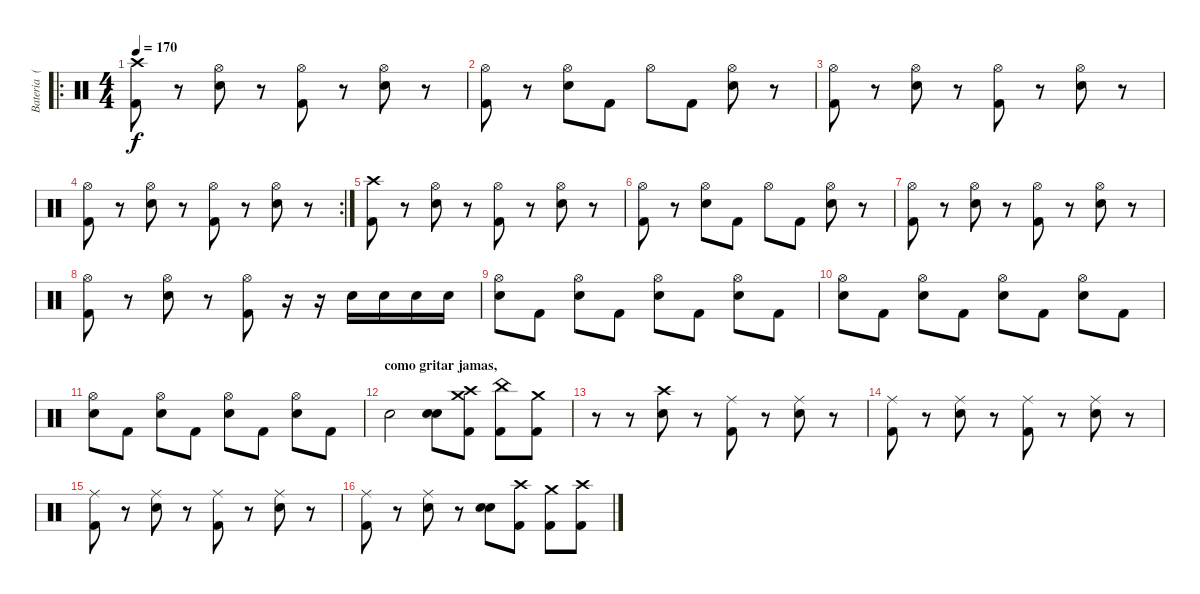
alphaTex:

\track ("Bateria  (Araujo)" "Bateria  (") {instrument percussion}
\staff {score}
\articulation defaults
\ro
\ts (4 4)
\tempo 170
\clef neutral
\ks c
("Crash high (hit)" "Kick (hit) 2").8{dy f} r.8 ("Hi-Hat (open)" "Snare (hit) 2").8 r.8 ("Hi-Hat (open)" "Kick (hit) 2").8 r.8 ("Hi-Hat (open)" "Snare (hit) 2").8 r.8 |
("Hi-Hat (open)" "Kick (hit) 2").8 r.8 ("Hi-Hat (open)" "Snare (hit) 2").8 "Kick (hit) 2".8 "Hi-Hat (open)".8 "Kick (hit) 2".8 ("Hi-Hat (open)" "Snare (hit) 2").8 r.8 |
("Hi-Hat (open)" "Kick (hit) 2").8 r.8 ("Hi-Hat (open)" "Snare (hit) 2").8 r.8 ("Hi-Hat (open)" "Kick (hit) 2").8 r.8 ("Hi-Hat (open)" "Snare (hit) 2").8 r.8 |
\rc 2
("Hi-Hat (open)" "Kick (hit) 2").8 r.8 ("Hi-Hat (open)" "Snare (hit) 2").8 r.8 ("Hi-Hat (open)" "Kick (hit) 2").8 r.8 ("Hi-Hat (open)" "Snare (hit) 2").8 r.8 |
("Crash high (hit)" "Kick (hit) 2").8 r.8 ("Hi-Hat (open)" "Snare (hit) 2").8 r.8 ("Hi-Hat (open)" "Kick (hit) 2").8 r.8 ("Hi-Hat (open)" "Snare (hit) 2").8 r.8 |
("Hi-Hat (open)" "Kick (hit) 2").8 r.8 ("Hi-Hat (open)" "Snare (hit) 2").8 "Kick (hit) 2".8 "Hi-Hat (open)".8 "Kick (hit) 2".8 ("Hi-Hat (open)" "Snare (hit) 2").8 r.8 |
("Hi-Hat (open)" "Kick (hit) 2").8 r.8 ("Hi-Hat (open)" "Snare (hit) 2").8 r.8 ("Hi-Hat (open)" "Kick (hit) 2").8 r.8 ("Hi-Hat (open)" "Snare (hit) 2").8 r.8 |
("Hi-Hat (open)" "Kick (hit) 2").8 r.8 ("Hi-Hat (open)" "Snare (hit) 2").8 r.8 ("Hi-Hat (open)" "Kick (hit) 2").8 r.16 r.16 "Snare (hit) 2".16 "Snare (hit) 2".16 "Snare (hit) 2".16 "Snare (hit) 2".16 |
("Hi-Hat (open)" "Snare (hit) 2").8 "Kick (hit) 2".8 ("Hi-Hat (open)" "Snare (hit) 2").8 "Kick (hit) 2".8 ("Hi-Hat (open)" "Snare (hit) 2").8 "Kick (hit) 2".8 ("Hi-Hat (open)" "Snare (hit) 2").8 "Kick (hit) 2".8 |
("Hi-Hat (open)" "Snare (hit) 2").8 "Kick (hit) 2".8 ("Hi-Hat (open)" "Snare (hit) 2").8 "Kick (hit) 2".8 ("Hi-Hat (open)" "Snare (hit) 2").8 "Kick (hit) 2".8 ("Hi-Hat (open)" "Snare (hit) 2").8 "Kick (hit) 2".8 |
("Hi-Hat (open)" "Snare (hit) 2").8 "Kick (hit) 2".8 ("Hi-Hat (open)" "Snare (hit) 2").8 "Kick (hit) 2".8 ("Hi-Hat (open)" "Snare (hit) 2").8 "Kick (hit) 2".8 ("Hi-Hat (open)" "Snare (hit) 2").8 "Kick (hit) 2".8 |
\section ("" "como gritar jamas,")
"Snare (hit) 2".2 ("Snare (hit) 2" "Snare (hit) 2").8 ("Crash high (hit)" "Crash medium (hit)" "Kick (hit) 2").8 ("China (hit)" "Kick (hit) 2").8 ("Crash medium (hit)" "Kick (hit) 2").8 |
r.8 r.8 ("Crash high (hit)" "Snare (hit) 2").8 r.8 ("Ride (middle)" "Kick (hit) 2").8 r.8 ("Ride (middle)" "Snare (hit) 2").8 r.8 |
("Ride (middle)" "Kick (hit) 2").8 r.8 ("Ride (middle)" "Snare (hit) 2").8 r.8 ("Ride (middle)" "Kick (hit) 2").8 r.8 ("Ride (middle)" "Snare (hit) 2").8 r.8 |
("Ride (middle)" "Kick (hit) 2").8 r.8 ("Ride (middle)" "Snare (hit) 2").8 r.8 ("Ride (middle)" "Kick (hit) 2").8 r.8 ("Ride (middle)" "Snare (hit) 2").8 r.8 |
("Ride (middle)" "Kick (hit) 2").8 r.8 ("Ride (middle)" "Snare (hit) 2").8 r.8 ("Snare (hit) 2" "Snare (hit) 2").8 ("Crash high (hit)" "Kick (hit) 2").8 ("Crash medium (hit)" "Kick (hit) 2").8 ("Crash high (hit)" "Kick (hit) 2").8
